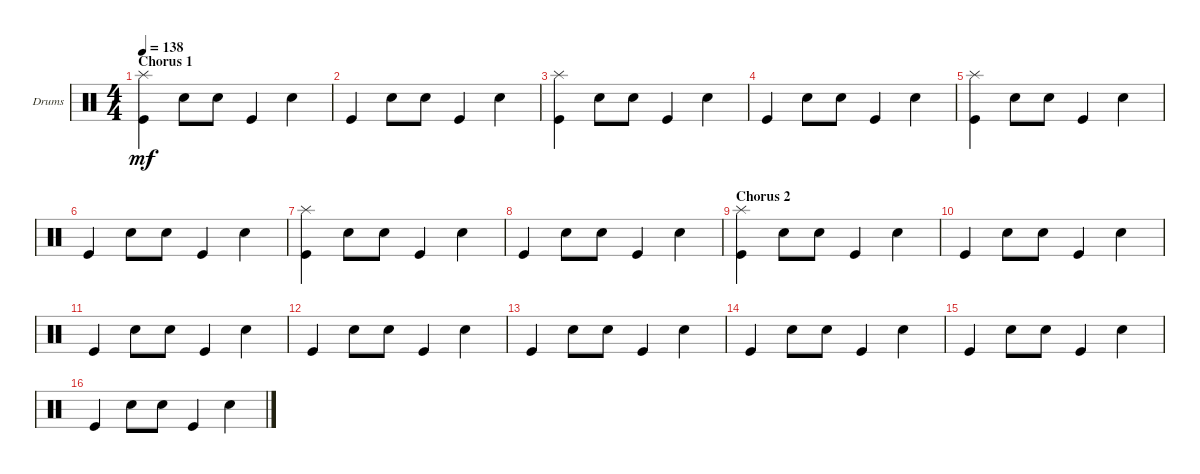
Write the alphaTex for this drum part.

\defaultSystemsLayout 4
\bracketExtendMode groupsimilarinstruments
\firstSystemTrackNameOrientation horizontal
\otherSystemsTrackNameOrientation horizontal
\track ("Drumkit" "Drums") {instrument percussion}
\staff {score}
\articulation defaults
\ts (4 4)
\section ("" "Chorus 1")
\tempo 138
\clef neutral
\ks c
("Kick (hit)" "Splash (hit)").4{dy mf} "Snare (hit) 2".8 "Snare (hit) 2".8 "Kick (hit)".4 "Snare (hit) 2".4 |
"Kick (hit)".4 "Snare (hit) 2".8 "Snare (hit) 2".8 "Kick (hit)".4 "Snare (hit) 2".4 |
("Kick (hit)" "Splash (hit)").4 "Snare (hit) 2".8 "Snare (hit) 2".8 "Kick (hit)".4 "Snare (hit) 2".4 |
"Kick (hit)".4 "Snare (hit) 2".8 "Snare (hit) 2".8 "Kick (hit)".4 "Snare (hit) 2".4 |
("Kick (hit)" "Splash (hit)").4 "Snare (hit) 2".8 "Snare (hit) 2".8 "Kick (hit)".4 "Snare (hit) 2".4 |
"Kick (hit)".4 "Snare (hit) 2".8 "Snare (hit) 2".8 "Kick (hit)".4 "Snare (hit) 2".4 |
("Kick (hit)" "Splash (hit)").4 "Snare (hit) 2".8 "Snare (hit) 2".8 "Kick (hit)".4 "Snare (hit) 2".4 |
"Kick (hit)".4 "Snare (hit) 2".8 "Snare (hit) 2".8 "Kick (hit)".4 "Snare (hit) 2".4 |
\section ("" "Chorus 2")
("Kick (hit)" "Splash (hit)").4 "Snare (hit) 2".8 "Snare (hit) 2".8 "Kick (hit)".4 "Snare (hit) 2".4 |
"Kick (hit)".4 "Snare (hit) 2".8 "Snare (hit) 2".8 "Kick (hit)".4 "Snare (hit) 2".4 |
"Kick (hit)".4 "Snare (hit) 2".8 "Snare (hit) 2".8 "Kick (hit)".4 "Snare (hit) 2".4 |
"Kick (hit)".4 "Snare (hit) 2".8 "Snare (hit) 2".8 "Kick (hit)".4 "Snare (hit) 2".4 |
"Kick (hit)".4 "Snare (hit) 2".8 "Snare (hit) 2".8 "Kick (hit)".4 "Snare (hit) 2".4 |
"Kick (hit)".4 "Snare (hit) 2".8 "Snare (hit) 2".8 "Kick (hit)".4 "Snare (hit) 2".4 |
"Kick (hit)".4 "Snare (hit) 2".8 "Snare (hit) 2".8 "Kick (hit)".4 "Snare (hit) 2".4 |
"Kick (hit)".4 "Snare (hit) 2".8 "Snare (hit) 2".8 "Kick (hit)".4 "Snare (hit) 2".4
